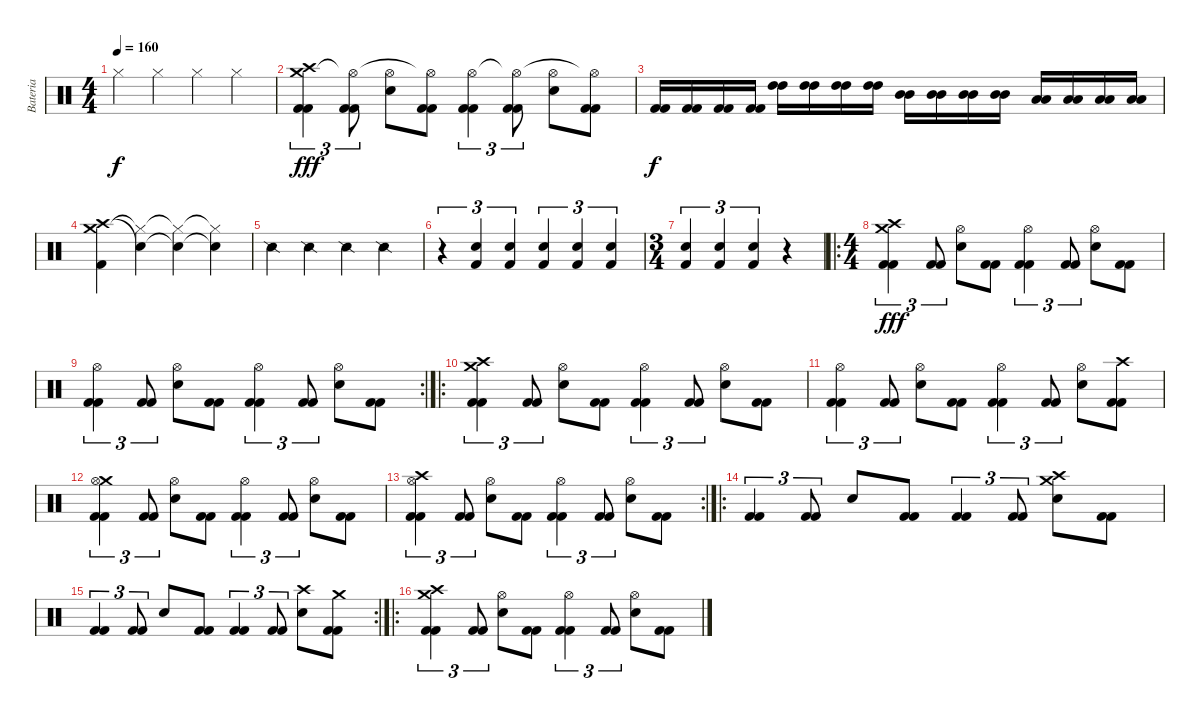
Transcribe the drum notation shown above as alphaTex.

\track ("Bateria" "Bateria") {instrument percussion}
\staff {score}
\articulation defaults
\ts (4 4)
\tempo 160
\clef neutral
\ks c "Hi-Hat (closed)".4{dy f} "Hi-Hat (closed)".4 "Hi-Hat (closed)".4 "Hi-Hat (closed)".4
|
("Kick (hit) 2" "Kick (hit) 2" "Crash medium (hit)" "Crash high (hit)").4{tu (3 2) dy fff} ("Kick (hit) 2" "Kick (hit) 2" "Hi-Hat (open)"{t}).8{tu (3 2)} ("Snare (hit) 2" "Hi-Hat (open)").8 ("Kick (hit) 2" "Kick (hit) 2" "Hi-Hat (open)"{t}).8 ("Kick (hit) 2" "Kick (hit) 2" "Hi-Hat (open)").4{tu (3 2)} ("Kick (hit) 2" "Kick (hit) 2" "Hi-Hat (open)"{t}).8{tu (3 2)} ("Snare (hit) 2" "Hi-Hat (open)").8 ("Kick (hit) 2" "Kick (hit) 2" "Hi-Hat (open)"{t}).8 |
("Kick (hit) 2" "Kick (hit) 2").16{dy f} ("Kick (hit) 2" "Kick (hit) 2").16 ("Kick (hit) 2" "Kick (hit) 2").16 ("Kick (hit) 2" "Kick (hit) 2").16 ("High Tom (hit)" "High Tom (hit)").16 ("High Tom (hit)" "High Tom (hit)").16 ("High Tom (hit)" "High Tom (hit)").16 ("High Tom (hit)" "High Tom (hit)").16 ("Mid Tom (hit)" "Mid Tom (hit)").16 ("Mid Tom (hit)" "Mid Tom (hit)").16 ("Mid Tom (hit)" "Mid Tom (hit)").16 ("Mid Tom (hit)" "Mid Tom (hit)").16 ("Low Tom (hit)" "Low Tom (hit)").16 ("Low Tom (hit)" "Low Tom (hit)").16 ("Low Tom (hit)" "Low Tom (hit)").16 ("Low Tom (hit)" "Low Tom (hit)").16 |
("Crash medium (hit)" "Crash high (hit)" "Kick (hit) 2").4 ("Hi-Hat (closed)"{t} "Snare (hit)"{t}).4 ("Hi-Hat (closed)"{t} "Snare (hit)"{t}).4 ("Hi-Hat (closed)"{t} "Snare (hit)"{t}).4 |
"Snare (side stick) 2".4 "Snare (side stick) 2".4 "Snare (side stick) 2".4 "Snare (side stick) 2".4 |
r.4{tu (3 2)} ("Snare (hit) 2" "Kick (hit) 2").4{tu (3 2)} ("Snare (hit) 2" "Kick (hit) 2").4{tu (3 2)} ("Snare (hit) 2" "Kick (hit) 2").4{tu (3 2)} ("Snare (hit) 2" "Kick (hit) 2").4{tu (3 2)} ("Snare (hit) 2" "Kick (hit) 2").4{tu (3 2)} |
\ts (3 4)
("Snare (hit) 2" "Kick (hit) 2").4{tu (3 2)} ("Snare (hit) 2" "Kick (hit) 2").4{tu (3 2)} ("Snare (hit) 2" "Kick (hit) 2").4{tu (3 2)} r.4 |
\ro
\ts (4 4)
("Kick (hit) 2" "Kick (hit) 2" "Crash medium (hit)" "Crash high (hit)").4{tu (3 2) dy fff} ("Kick (hit) 2" "Kick (hit) 2").8{tu (3 2)} ("Snare (hit) 2" "Hi-Hat (open)").8 ("Kick (hit) 2" "Kick (hit) 2").8 ("Kick (hit) 2" "Kick (hit) 2" "Hi-Hat (open)").4{tu (3 2)} ("Kick (hit) 2" "Kick (hit) 2").8{tu (3 2)} ("Snare (hit) 2" "Hi-Hat (open)").8 ("Kick (hit) 2" "Kick (hit) 2").8 |
\rc 2
("Kick (hit) 2" "Kick (hit) 2" "Hi-Hat (open)").4{tu (3 2)} ("Kick (hit) 2" "Kick (hit) 2").8{tu (3 2)} ("Snare (hit) 2" "Hi-Hat (open)").8 ("Kick (hit) 2" "Kick (hit) 2").8 ("Kick (hit) 2" "Kick (hit) 2" "Hi-Hat (open)").4{tu (3 2)} ("Kick (hit) 2" "Kick (hit) 2").8{tu (3 2)} ("Snare (hit) 2" "Hi-Hat (open)").8 ("Kick (hit) 2" "Kick (hit) 2").8 |
\ro
("Kick (hit) 2" "Kick (hit) 2" "Crash medium (hit)" "Crash high (hit)").4{tu (3 2)} ("Kick (hit) 2" "Kick (hit) 2").8{tu (3 2)} ("Snare (hit) 2" "Hi-Hat (open)").8 ("Kick (hit) 2" "Kick (hit) 2").8 ("Kick (hit) 2" "Kick (hit) 2" "Hi-Hat (open)").4{tu (3 2)} ("Kick (hit) 2" "Kick (hit) 2").8{tu (3 2)} ("Snare (hit) 2" "Hi-Hat (open)").8 ("Kick (hit) 2" "Kick (hit) 2").8 |
("Kick (hit) 2" "Kick (hit) 2" "Hi-Hat (open)").4{tu (3 2)} ("Kick (hit) 2" "Kick (hit) 2").8{tu (3 2)} ("Snare (hit) 2" "Hi-Hat (open)").8 ("Kick (hit) 2" "Kick (hit) 2").8 ("Kick (hit) 2" "Kick (hit) 2" "Hi-Hat (open)").4{tu (3 2)} ("Kick (hit) 2" "Kick (hit) 2").8{tu (3 2)} ("Snare (hit) 2" "Hi-Hat (open)").8 ("Kick (hit) 2" "Kick (hit) 2" "Crash high (hit)").8 |
("Kick (hit) 2" "Kick (hit) 2" "Crash medium (hit)" "Hi-Hat (open)").4{tu (3 2)} ("Kick (hit) 2" "Kick (hit) 2").8{tu (3 2)} ("Snare (hit) 2" "Hi-Hat (open)").8 ("Kick (hit) 2" "Kick (hit) 2").8 ("Kick (hit) 2" "Kick (hit) 2" "Hi-Hat (open)").4{tu (3 2)} ("Kick (hit) 2" "Kick (hit) 2").8{tu (3 2)} ("Snare (hit) 2" "Hi-Hat (open)").8 ("Kick (hit) 2" "Kick (hit) 2").8 |
\rc 2
("Kick (hit) 2" "Kick (hit) 2" "Crash high (hit)" "Hi-Hat (open)").4{tu (3 2)} ("Kick (hit) 2" "Kick (hit) 2").8{tu (3 2)} ("Snare (hit) 2" "Hi-Hat (open)").8 ("Kick (hit) 2" "Kick (hit) 2").8 ("Kick (hit) 2" "Kick (hit) 2" "Hi-Hat (open)").4{tu (3 2)} ("Kick (hit) 2" "Kick (hit) 2").8{tu (3 2)} ("Snare (hit) 2" "Hi-Hat (open)").8 ("Kick (hit) 2" "Kick (hit) 2").8 |
\ro
("Kick (hit) 2" "Kick (hit) 2").4{tu (3 2)} ("Kick (hit) 2" "Kick (hit) 2").8{tu (3 2)} "Snare (hit) 2".8 ("Kick (hit) 2" "Kick (hit) 2").8 ("Kick (hit) 2" "Kick (hit) 2").4{tu (3 2)} ("Kick (hit) 2" "Kick (hit) 2").8{tu (3 2)} ("Snare (hit) 2" "Crash high (hit)" "Crash medium (hit)").8 ("Kick (hit) 2" "Kick (hit) 2").8 |
\rc 2
("Kick (hit) 2" "Kick (hit) 2").4{tu (3 2)} ("Kick (hit) 2" "Kick (hit) 2").8{tu (3 2)} "Snare (hit) 2".8 ("Kick (hit) 2" "Kick (hit) 2").8 ("Kick (hit) 2" "Kick (hit) 2").4{tu (3 2)} ("Kick (hit) 2" "Kick (hit) 2").8{tu (3 2)} ("Snare (hit) 2" "Crash high (hit)").8 ("Kick (hit) 2" "Kick (hit) 2" "Crash medium (hit)").8 |
\ro
("Kick (hit) 2" "Kick (hit) 2" "Crash high (hit)" "Crash medium (hit)").4{tu (3 2)} ("Kick (hit) 2" "Kick (hit) 2").8{tu (3 2)} ("Snare (hit) 2" "Hi-Hat (open)").8 ("Kick (hit) 2" "Kick (hit) 2").8 ("Kick (hit) 2" "Kick (hit) 2" "Hi-Hat (open)").4{tu (3 2)} ("Kick (hit) 2" "Kick (hit) 2").8{tu (3 2)} ("Snare (hit) 2" "Hi-Hat (open)").8 ("Kick (hit) 2" "Kick (hit) 2").8
